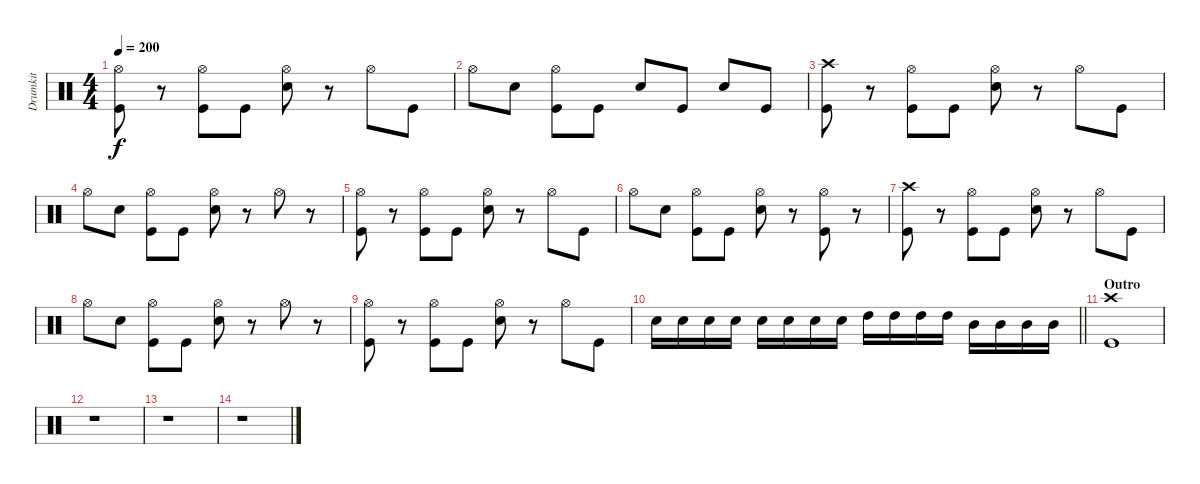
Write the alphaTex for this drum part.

\track ("Drumkit" "Drumkit") {instrument percussion}
\staff {score}
\articulation defaults
\ts (4 4)
\tempo 200
\clef neutral
\ks c
("Kick (hit)" "Hi-Hat (open)").8{dy f} r.8 ("Hi-Hat (open)" "Kick (hit)").8 "Kick (hit)".8 ("Hi-Hat (open)" "Snare (hit) 2").8 r.8 "Hi-Hat (open)".8 "Kick (hit)".8 |
"Hi-Hat (open)".8 "Snare (hit) 2".8 ("Kick (hit)" "Hi-Hat (open)").8 "Kick (hit)".8 "Snare (hit) 2".8 "Kick (hit)".8 "Snare (hit) 2".8 "Kick (hit)".8 |
("Kick (hit)" "Crash high (hit)").8 r.8 ("Hi-Hat (open)" "Kick (hit)").8 "Kick (hit)".8 ("Hi-Hat (open)" "Snare (hit) 2").8 r.8 "Hi-Hat (open)".8 "Kick (hit)".8 |
"Hi-Hat (open)".8 "Snare (hit) 2".8 ("Kick (hit)" "Hi-Hat (open)").8 "Kick (hit)".8 ("Snare (hit) 2" "Hi-Hat (open)").8 r.8 "Hi-Hat (open)".8 r.8 |
("Kick (hit)" "Hi-Hat (open)").8 r.8 ("Hi-Hat (open)" "Kick (hit)").8 "Kick (hit)".8 ("Hi-Hat (open)" "Snare (hit) 2").8 r.8 "Hi-Hat (open)".8 "Kick (hit)".8 |
"Hi-Hat (open)".8 "Snare (hit) 2".8 ("Kick (hit)" "Hi-Hat (open)").8 "Kick (hit)".8 ("Snare (hit) 2" "Hi-Hat (open)").8 r.8 ("Hi-Hat (open)" "Kick (hit)").8 r.8 |
("Kick (hit)" "Crash high (hit)").8 r.8 ("Hi-Hat (open)" "Kick (hit)").8 "Kick (hit)".8 ("Hi-Hat (open)" "Snare (hit) 2").8 r.8 "Hi-Hat (open)".8 "Kick (hit)".8 |
"Hi-Hat (open)".8 "Snare (hit) 2".8 ("Kick (hit)" "Hi-Hat (open)").8 "Kick (hit)".8 ("Snare (hit) 2" "Hi-Hat (open)").8 r.8 "Hi-Hat (open)".8 r.8 |
("Kick (hit)" "Hi-Hat (open)").8 r.8 ("Hi-Hat (open)" "Kick (hit)").8 "Kick (hit)".8 ("Hi-Hat (open)" "Snare (hit) 2").8 r.8 "Hi-Hat (open)".8 "Kick (hit)".8 |
\barLineRight lightlight "Snare (hit) 2".16 "Snare (hit) 2".16 "Snare (hit) 2".16 "Snare (hit) 2".16 "Snare (hit) 2".16 "Snare (hit) 2".16 "Snare (hit) 2".16 "Snare (hit) 2".16 "High Tom (hit)".16 "High Tom (hit)".16 "High Tom (hit)".16 "High Tom (hit)".16 "Mid Tom (hit)".16 "Mid Tom (hit)".16 "Mid Tom (hit)".16 "Mid Tom (hit)".16
|
\section ("" "Outro")
("Kick (hit)" "Crash high (hit)").1 |
r.1 |
r.1 |
r.1
